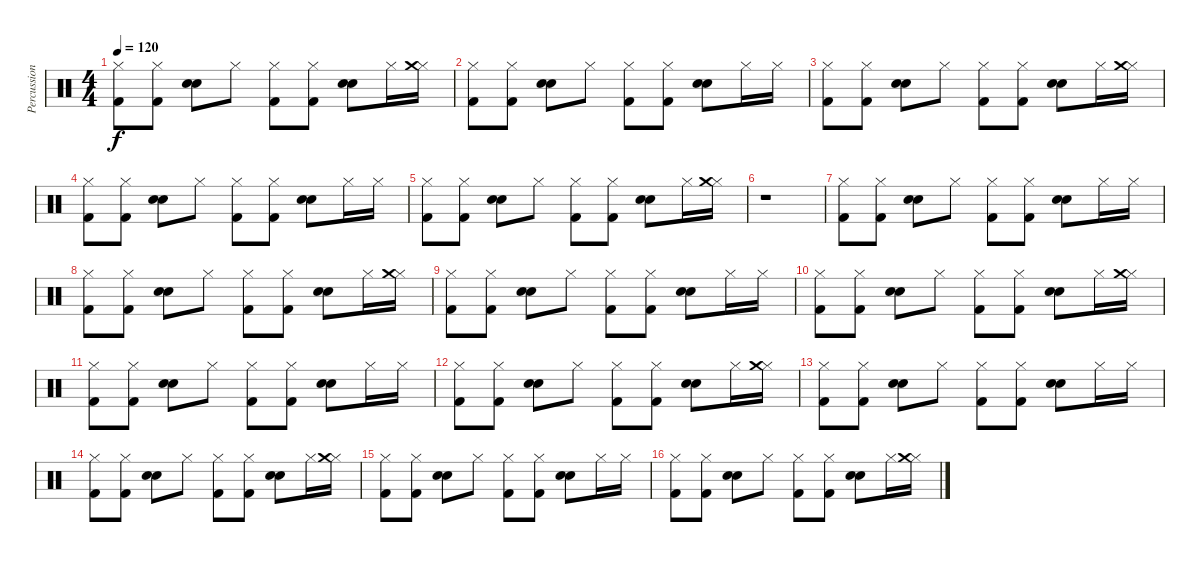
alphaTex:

\track ("Percussions" "Percussion") {instrument percussion}
\staff {score}
\articulation defaults
\ts (4 4)
\tempo 120
\clef neutral
\ks c
("Kick (hit) 2" "Hi-Hat (closed)").8{dy f} ("Kick (hit) 2" "Hi-Hat (closed)").8 ("Hand Clap (hit)" "Electric Snare (hit)").8 "Hi-Hat (closed)".8 ("Kick (hit) 2" "Hi-Hat (closed)").8 ("Kick (hit) 2" "Hi-Hat (closed)").8 ("Hand Clap (hit)" "Electric Snare (hit)").8 "Hi-Hat (closed)".16 ("Hi-Hat (closed)" "Crash medium (hit)").16 |
("Kick (hit) 2" "Hi-Hat (closed)").8 ("Kick (hit) 2" "Hi-Hat (closed)").8 ("Hand Clap (hit)" "Electric Snare (hit)").8 "Hi-Hat (closed)".8 ("Kick (hit) 2" "Hi-Hat (closed)").8 ("Kick (hit) 2" "Hi-Hat (closed)").8 ("Hand Clap (hit)" "Electric Snare (hit)").8 "Hi-Hat (closed)".16 "Hi-Hat (closed)".16 |
("Kick (hit) 2" "Hi-Hat (closed)").8 ("Kick (hit) 2" "Hi-Hat (closed)").8 ("Hand Clap (hit)" "Electric Snare (hit)").8 "Hi-Hat (closed)".8 ("Kick (hit) 2" "Hi-Hat (closed)").8 ("Kick (hit) 2" "Hi-Hat (closed)").8 ("Hand Clap (hit)" "Electric Snare (hit)").8 "Hi-Hat (closed)".16 ("Hi-Hat (closed)" "Crash medium (hit)").16 |
("Kick (hit) 2" "Hi-Hat (closed)").8 ("Kick (hit) 2" "Hi-Hat (closed)").8 ("Hand Clap (hit)" "Electric Snare (hit)").8 "Hi-Hat (closed)".8 ("Kick (hit) 2" "Hi-Hat (closed)").8 ("Kick (hit) 2" "Hi-Hat (closed)").8 ("Hand Clap (hit)" "Electric Snare (hit)").8 "Hi-Hat (closed)".16 "Hi-Hat (closed)".16 |
("Kick (hit) 2" "Hi-Hat (closed)").8 ("Kick (hit) 2" "Hi-Hat (closed)").8 ("Hand Clap (hit)" "Electric Snare (hit)").8 "Hi-Hat (closed)".8 ("Kick (hit) 2" "Hi-Hat (closed)").8 ("Kick (hit) 2" "Hi-Hat (closed)").8 ("Hand Clap (hit)" "Electric Snare (hit)").8 "Hi-Hat (closed)".16 ("Hi-Hat (closed)" "Crash medium (hit)").16 |
r.1 |
("Kick (hit) 2" "Hi-Hat (closed)").8 ("Kick (hit) 2" "Hi-Hat (closed)").8 ("Hand Clap (hit)" "Electric Snare (hit)").8 "Hi-Hat (closed)".8 ("Kick (hit) 2" "Hi-Hat (closed)").8 ("Kick (hit) 2" "Hi-Hat (closed)").8 ("Hand Clap (hit)" "Electric Snare (hit)").8 "Hi-Hat (closed)".16 "Hi-Hat (closed)".16 |
("Kick (hit) 2" "Hi-Hat (closed)").8 ("Kick (hit) 2" "Hi-Hat (closed)").8 ("Hand Clap (hit)" "Electric Snare (hit)").8 "Hi-Hat (closed)".8 ("Kick (hit) 2" "Hi-Hat (closed)").8 ("Kick (hit) 2" "Hi-Hat (closed)").8 ("Hand Clap (hit)" "Electric Snare (hit)").8 "Hi-Hat (closed)".16 ("Hi-Hat (closed)" "Crash medium (hit)").16 |
("Kick (hit) 2" "Hi-Hat (closed)").8 ("Kick (hit) 2" "Hi-Hat (closed)").8 ("Hand Clap (hit)" "Electric Snare (hit)").8 "Hi-Hat (closed)".8 ("Kick (hit) 2" "Hi-Hat (closed)").8 ("Kick (hit) 2" "Hi-Hat (closed)").8 ("Hand Clap (hit)" "Electric Snare (hit)").8 "Hi-Hat (closed)".16 "Hi-Hat (closed)".16 |
("Kick (hit) 2" "Hi-Hat (closed)").8 ("Kick (hit) 2" "Hi-Hat (closed)").8 ("Hand Clap (hit)" "Electric Snare (hit)").8 "Hi-Hat (closed)".8 ("Kick (hit) 2" "Hi-Hat (closed)").8 ("Kick (hit) 2" "Hi-Hat (closed)").8 ("Hand Clap (hit)" "Electric Snare (hit)").8 "Hi-Hat (closed)".16 ("Hi-Hat (closed)" "Crash medium (hit)").16 |
("Kick (hit) 2" "Hi-Hat (closed)").8 ("Kick (hit) 2" "Hi-Hat (closed)").8 ("Hand Clap (hit)" "Electric Snare (hit)").8 "Hi-Hat (closed)".8 ("Kick (hit) 2" "Hi-Hat (closed)").8 ("Kick (hit) 2" "Hi-Hat (closed)").8 ("Hand Clap (hit)" "Electric Snare (hit)").8 "Hi-Hat (closed)".16 "Hi-Hat (closed)".16 |
("Kick (hit) 2" "Hi-Hat (closed)").8 ("Kick (hit) 2" "Hi-Hat (closed)").8 ("Hand Clap (hit)" "Electric Snare (hit)").8 "Hi-Hat (closed)".8 ("Kick (hit) 2" "Hi-Hat (closed)").8 ("Kick (hit) 2" "Hi-Hat (closed)").8 ("Hand Clap (hit)" "Electric Snare (hit)").8 "Hi-Hat (closed)".16 ("Hi-Hat (closed)" "Crash medium (hit)").16 |
("Kick (hit) 2" "Hi-Hat (closed)").8 ("Kick (hit) 2" "Hi-Hat (closed)").8 ("Hand Clap (hit)" "Electric Snare (hit)").8 "Hi-Hat (closed)".8 ("Kick (hit) 2" "Hi-Hat (closed)").8 ("Kick (hit) 2" "Hi-Hat (closed)").8 ("Hand Clap (hit)" "Electric Snare (hit)").8 "Hi-Hat (closed)".16 "Hi-Hat (closed)".16 |
("Kick (hit) 2" "Hi-Hat (closed)").8 ("Kick (hit) 2" "Hi-Hat (closed)").8 ("Hand Clap (hit)" "Electric Snare (hit)").8 "Hi-Hat (closed)".8 ("Kick (hit) 2" "Hi-Hat (closed)").8 ("Kick (hit) 2" "Hi-Hat (closed)").8 ("Hand Clap (hit)" "Electric Snare (hit)").8 "Hi-Hat (closed)".16 ("Hi-Hat (closed)" "Crash medium (hit)").16 |
("Kick (hit) 2" "Hi-Hat (closed)").8 ("Kick (hit) 2" "Hi-Hat (closed)").8 ("Hand Clap (hit)" "Electric Snare (hit)").8 "Hi-Hat (closed)".8 ("Kick (hit) 2" "Hi-Hat (closed)").8 ("Kick (hit) 2" "Hi-Hat (closed)").8 ("Hand Clap (hit)" "Electric Snare (hit)").8 "Hi-Hat (closed)".16 "Hi-Hat (closed)".16 |
("Kick (hit) 2" "Hi-Hat (closed)").8 ("Kick (hit) 2" "Hi-Hat (closed)").8 ("Hand Clap (hit)" "Electric Snare (hit)").8 "Hi-Hat (closed)".8 ("Kick (hit) 2" "Hi-Hat (closed)").8 ("Kick (hit) 2" "Hi-Hat (closed)").8 ("Hand Clap (hit)" "Electric Snare (hit)").8 "Hi-Hat (closed)".16 ("Hi-Hat (closed)" "Crash medium (hit)").16
